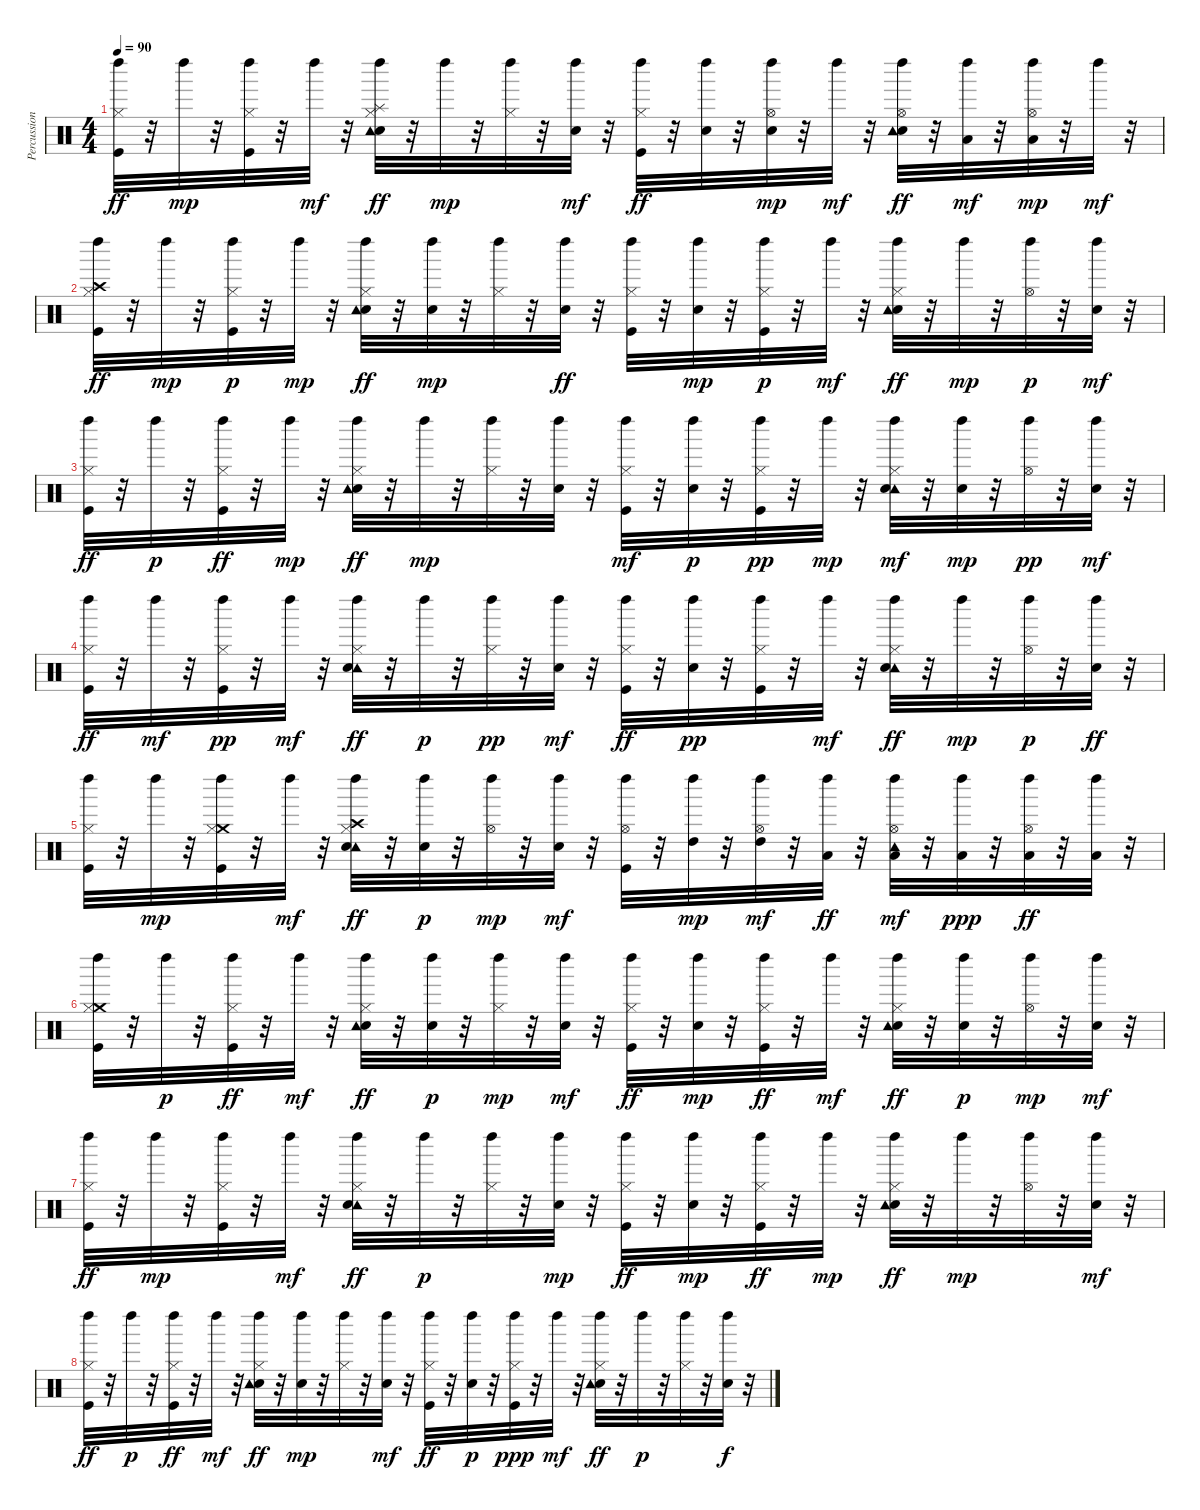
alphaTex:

\track ("Percussions" "Percussion") {instrument percussion}
\staff {score}
\articulation defaults
\ts (4 4)
\tempo 90
\clef neutral
\ks c
("Kick (hit)" "Left Maraca (hit)" "Hi-Hat (closed)").32{dy ff} r.32 "Left Maraca (hit)".32{dy mp} r.32 ("Hi-Hat (closed)" "Kick (hit)" "Left Maraca (hit)").32 r.32 "Left Maraca (hit)".32{dy mf} r.32 ("Hi-Hat (closed)" "Electric Snare (hit)" "Splash (hit)" "Tambourine (hit)" "Left Maraca (hit)").32{dy ff} r.32 "Left Maraca (hit)".32{dy mp} r.32 ("Hi-Hat (closed)" "Left Maraca (hit)").32 r.32 ("Electric Snare (hit)" "Left Maraca (hit)").32{dy mf} r.32 ("Hi-Hat (closed)" "Left Maraca (hit)" "Kick (hit)").32{dy ff} r.32 ("Left Maraca (hit)" "Electric Snare (hit)").32 r.32 ("Hi-Hat (open)" "Electric Snare (hit)" "Left Maraca (hit)").32{dy mp} r.32 "Left Maraca (hit)".32{dy mf} r.32 ("Hi-Hat (open)" "Electric Snare (hit)" "Tambourine (hit)" "Left Maraca (hit)").32{dy ff} r.32 ("Low Tom (hit)" "Left Maraca (hit)").32{dy mf} r.32 ("Hi-Hat (open)" "Low Floor Tom (hit)" "Left Maraca (hit)").32{dy mp} r.32 "Left Maraca (hit)".32{dy mf} r.32 |
("Hi-Hat (closed)" "Left Maraca (hit)" "Crash high (hit)" "Kick (hit)").32{dy ff} r.32 "Left Maraca (hit)".32{dy mp} r.32 ("Hi-Hat (closed)" "Kick (hit)" "Left Maraca (hit)").32{dy p} r.32 "Left Maraca (hit)".32{dy mp} r.32 ("Electric Snare (hit)" "Left Maraca (hit)" "Hi-Hat (closed)" "Tambourine (hit)").32{dy ff} r.32 ("Electric Snare (hit)" "Left Maraca (hit)").32{dy mp} r.32 ("Hi-Hat (closed)" "Left Maraca (hit)").32 r.32 ("Left Maraca (hit)" "Electric Snare (hit)").32{dy ff} r.32 ("Hi-Hat (closed)" "Kick (hit)" "Left Maraca (hit)").32 r.32 ("Electric Snare (hit)" "Left Maraca (hit)").32{dy mp} r.32 ("Hi-Hat (closed)" "Kick (hit)" "Left Maraca (hit)").32{dy p} r.32 "Left Maraca (hit)".32{dy mf} r.32 ("Hi-Hat (closed)" "Electric Snare (hit)" "Left Maraca (hit)" "Tambourine (hit)").32{dy ff} r.32 "Left Maraca (hit)".32{dy mp} r.32 ("Hi-Hat (open)" "Left Maraca (hit)").32{dy p} r.32 ("Electric Snare (hit)" "Left Maraca (hit)").32{dy mf} r.32 |
("Left Maraca (hit)" "Hi-Hat (closed)" "Kick (hit)").32{dy ff} r.32 "Left Maraca (hit)".32{dy p} r.32 ("Hi-Hat (closed)" "Left Maraca (hit)" "Kick (hit)").32{dy ff} r.32 "Left Maraca (hit)".32{dy mp} r.32 ("Hi-Hat (closed)" "Electric Snare (hit)" "Tambourine (hit)" "Left Maraca (hit)").32{dy ff} r.32 "Left Maraca (hit)".32{dy mp} r.32 ("Hi-Hat (closed)" "Left Maraca (hit)").32 r.32 ("Left Maraca (hit)" "Electric Snare (hit)").32 r.32 ("Kick (hit)" "Left Maraca (hit)" "Hi-Hat (closed)").32{dy mf} r.32 ("Left Maraca (hit)" "Electric Snare (hit)").32{dy p} r.32 ("Hi-Hat (closed)" "Kick (hit)" "Left Maraca (hit)").32{dy pp} r.32 "Left Maraca (hit)".32{dy mp} r.32 ("Tambourine (hit)" "Electric Snare (hit)" "Hi-Hat (closed)" "Left Maraca (hit)").32{dy mf} r.32 ("Electric Snare (hit)" "Left Maraca (hit)").32{dy mp} r.32 ("Hi-Hat (open)" "Left Maraca (hit)").32{dy pp} r.32 ("Electric Snare (hit)" "Left Maraca (hit)").32{dy mf} r.32 |
("Hi-Hat (closed)" "Kick (hit)" "Left Maraca (hit)").32{dy ff} r.32 "Left Maraca (hit)".32{dy mf} r.32 ("Hi-Hat (closed)" "Kick (hit)" "Left Maraca (hit)").32{dy pp} r.32 "Left Maraca (hit)".32{dy mf} r.32 ("Tambourine (hit)" "Hi-Hat (closed)" "Electric Snare (hit)" "Left Maraca (hit)").32{dy ff} r.32 "Left Maraca (hit)".32{dy p} r.32 ("Hi-Hat (closed)" "Left Maraca (hit)").32{dy pp} r.32 ("Electric Snare (hit)" "Left Maraca (hit)").32{dy mf} r.32 ("Kick (hit)" "Hi-Hat (closed)" "Left Maraca (hit)").32{dy ff} r.32 ("Electric Snare (hit)" "Left Maraca (hit)").32{dy pp} r.32 ("Hi-Hat (closed)" "Kick (hit)" "Left Maraca (hit)").32 r.32 "Left Maraca (hit)".32{dy mf} r.32 ("Tambourine (hit)" "Hi-Hat (closed)" "Left Maraca (hit)" "Electric Snare (hit)").32{dy ff} r.32 "Left Maraca (hit)".32{dy mp} r.32 ("Hi-Hat (open)" "Left Maraca (hit)").32{dy p} r.32 ("Electric Snare (hit)" "Left Maraca (hit)").32{dy ff} r.32 |
("Hi-Hat (closed)" "Kick (hit)" "Left Maraca (hit)").32 r.32 "Left Maraca (hit)".32{dy mp} r.32 ("Crash medium (hit)" "Hi-Hat (closed)" "Kick (hit)" "Left Maraca (hit)").32 r.32 "Left Maraca (hit)".32{dy mf} r.32 ("Crash high (hit)" "Tambourine (hit)" "Hi-Hat (closed)" "Electric Snare (hit)" "Left Maraca (hit)").32{dy ff} r.32 ("Electric Snare (hit)" "Left Maraca (hit)").32{dy p} r.32 ("Hi-Hat (open)" "Left Maraca (hit)").32{dy mp} r.32 ("Electric Snare (hit)" "Left Maraca (hit)").32{dy mf} r.32 ("Hi-Hat (open)" "Kick (hit)" "Left Maraca (hit)").32 r.32 ("High Tom (hit)" "Left Maraca (hit)").32{dy mp} r.32 ("High Tom (hit)" "Hi-Hat (open)" "Left Maraca (hit)").32{dy mf} r.32 ("Left Maraca (hit)" "Low Tom (hit)").32{dy ff} r.32 ("Tambourine (hit)" "Left Maraca (hit)" "Low Tom (hit)" "Hi-Hat (open)").32{dy mf} r.32 ("Low Tom (hit)" "Left Maraca (hit)").32{dy ppp} r.32 ("Hi-Hat (open)" "Left Maraca (hit)" "Low Floor Tom (hit)").32{dy ff} r.32 ("Left Maraca (hit)" "Low Floor Tom (hit)").32 r.32 |
("Left Maraca (hit)" "Kick (hit)" "Crash medium (hit)" "Hi-Hat (closed)").32 r.32 "Left Maraca (hit)".32{dy p} r.32 ("Left Maraca (hit)" "Hi-Hat (closed)" "Kick (hit)").32{dy ff} r.32 "Left Maraca (hit)".32{dy mf} r.32 ("Hi-Hat (closed)" "Electric Snare (hit)" "Tambourine (hit)" "Left Maraca (hit)").32{dy ff} r.32 ("Electric Snare (hit)" "Left Maraca (hit)").32{dy p} r.32 ("Hi-Hat (closed)" "Left Maraca (hit)").32{dy mp} r.32 ("Electric Snare (hit)" "Left Maraca (hit)").32{dy mf} r.32 ("Hi-Hat (closed)" "Kick (hit)" "Left Maraca (hit)").32{dy ff} r.32 ("Electric Snare (hit)" "Left Maraca (hit)").32{dy mp} r.32 ("Hi-Hat (closed)" "Left Maraca (hit)" "Kick (hit)").32{dy ff} r.32 "Left Maraca (hit)".32{dy mf} r.32 ("Hi-Hat (closed)" "Electric Snare (hit)" "Left Maraca (hit)" "Tambourine (hit)").32{dy ff} r.32 ("Electric Snare (hit)" "Left Maraca (hit)").32{dy p} r.32 ("Hi-Hat (open)" "Left Maraca (hit)").32{dy mp} r.32 ("Electric Snare (hit)" "Left Maraca (hit)").32{dy mf} r.32 |
("Hi-Hat (closed)" "Kick (hit)" "Left Maraca (hit)").32{dy ff} r.32 "Left Maraca (hit)".32{dy mp} r.32 ("Hi-Hat (closed)" "Kick (hit)" "Left Maraca (hit)").32 r.32 "Left Maraca (hit)".32{dy mf} r.32 ("Tambourine (hit)" "Hi-Hat (closed)" "Electric Snare (hit)" "Left Maraca (hit)").32{dy ff} r.32 "Left Maraca (hit)".32{dy p} r.32 ("Hi-Hat (closed)" "Left Maraca (hit)").32 r.32 ("Electric Snare (hit)" "Left Maraca (hit)").32{dy mp} r.32 ("Kick (hit)" "Left Maraca (hit)" "Hi-Hat (closed)").32{dy ff} r.32 ("Electric Snare (hit)" "Left Maraca (hit)").32{dy mp} r.32 ("Left Maraca (hit)" "Hi-Hat (closed)" "Kick (hit)").32{dy ff} r.32 "Left Maraca (hit)".32{dy mp} r.32 ("Electric Snare (hit)" "Tambourine (hit)" "Left Maraca (hit)" "Hi-Hat (closed)").32{dy ff} r.32 "Left Maraca (hit)".32{dy mp} r.32 ("Hi-Hat (open)" "Left Maraca (hit)").32 r.32 ("Electric Snare (hit)" "Left Maraca (hit)").32{dy mf} r.32 |
("Hi-Hat (closed)" "Kick (hit)" "Left Maraca (hit)").32{dy ff} r.32 "Left Maraca (hit)".32{dy p} r.32 ("Hi-Hat (closed)" "Left Maraca (hit)" "Kick (hit)").32{dy ff} r.32 "Left Maraca (hit)".32{dy mf} r.32 ("Electric Snare (hit)" "Tambourine (hit)" "Left Maraca (hit)" "Hi-Hat (closed)").32{dy ff} r.32 ("Left Maraca (hit)" "Electric Snare (hit)").32{dy mp} r.32 ("Left Maraca (hit)" "Hi-Hat (closed)").32 r.32 ("Electric Snare (hit)" "Left Maraca (hit)").32{dy mf} r.32 ("Kick (hit)" "Left Maraca (hit)" "Hi-Hat (closed)").32{dy ff} r.32 ("Electric Snare (hit)" "Left Maraca (hit)").32{dy p} r.32 ("Hi-Hat (closed)" "Kick (hit)" "Left Maraca (hit)").32{dy ppp} r.32 "Left Maraca (hit)".32{dy mf} r.32 ("Electric Snare (hit)" "Tambourine (hit)" "Left Maraca (hit)" "Hi-Hat (closed)").32{dy ff} r.32 "Left Maraca (hit)".32{dy p} r.32 ("Left Maraca (hit)" "Hi-Hat (closed)").32 r.32 ("Electric Snare (hit)" "Left Maraca (hit)").32{dy f} r.32
